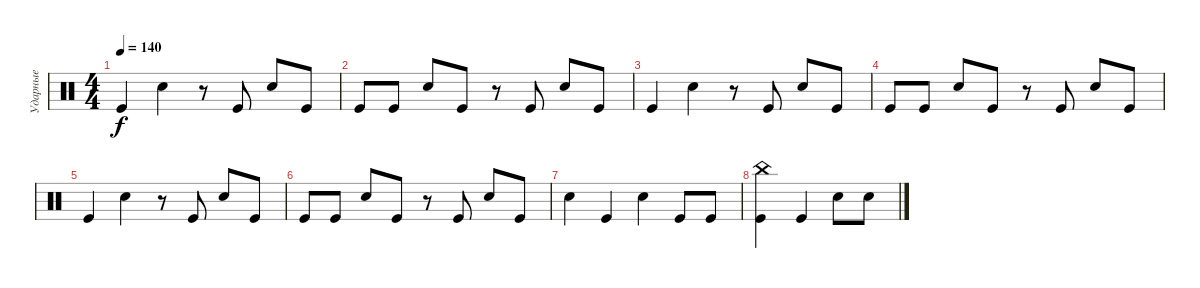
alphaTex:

\track ("Ударные" "Ударные") {instrument percussion}
\staff {score}
\articulation defaults
\ts (4 4)
\tempo 140
\clef neutral
\ks c "Kick (hit)".4{dy f} "Snare (hit) 2".4
r.8 "Kick (hit)".8 "Snare (hit) 2".8 "Kick (hit)".8 |
"Kick (hit)".8 "Kick (hit)".8 "Snare (hit) 2".8 "Kick (hit)".8 r.8 "Kick (hit)".8 "Snare (hit) 2".8 "Kick (hit)".8 |
"Kick (hit)".4 "Snare (hit) 2".4 r.8 "Kick (hit)".8 "Snare (hit) 2".8 "Kick (hit)".8 |
"Kick (hit)".8 "Kick (hit)".8 "Snare (hit) 2".8 "Kick (hit)".8 r.8 "Kick (hit)".8 "Snare (hit) 2".8 "Kick (hit)".8 |
"Kick (hit)".4 "Snare (hit) 2".4 r.8 "Kick (hit)".8 "Snare (hit) 2".8 "Kick (hit)".8 |
"Kick (hit)".8 "Kick (hit)".8 "Snare (hit) 2".8 "Kick (hit)".8 r.8 "Kick (hit)".8 "Snare (hit) 2".8 "Kick (hit)".8 |
"Snare (hit) 2".4 "Kick (hit)".4 "Snare (hit) 2".4 "Kick (hit)".8 "Kick (hit)".8 |
("Kick (hit)" "China (hit)").4 "Kick (hit)".4 "Snare (hit) 2".8 "Snare (hit) 2".8
